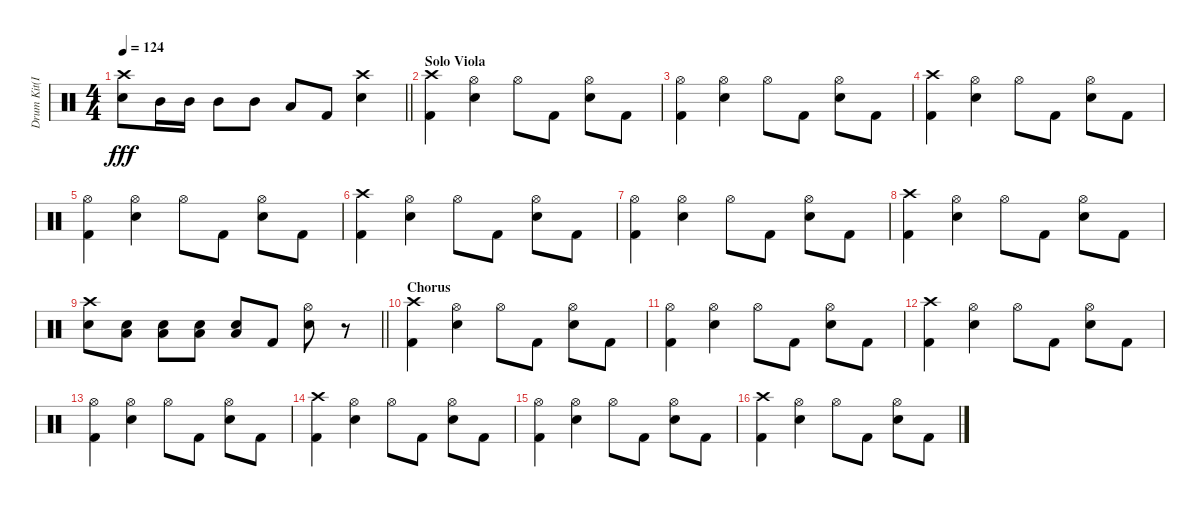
\track ("Drum Kit(Inu)" "Drum Kit(I") {instrument percussion}
\staff {score}
\articulation defaults
\ts (4 4)
\tempo 124
\clef neutral
\barLineRight lightlight
\ks c
("Electric Snare (hit)" "Crash high (hit)").8{dy fff} "Mid Tom (hit)".16 "Mid Tom (hit)".16 "Mid Tom (hit)".8 "Mid Tom (hit)".8 "Low Tom (hit)".8 "Kick (hit) 2".8 ("Crash high (hit)" "Electric Snare (hit)").4 |
\section ("" "Solo Viola")
("Kick (hit) 2" "Crash high (hit)").4 ("Hi-Hat (open)" "Electric Snare (hit)").4 "Hi-Hat (open)".8 "Kick (hit) 2".8 ("Hi-Hat (open)" "Electric Snare (hit)").8 "Kick (hit) 2".8 |
("Hi-Hat (open)" "Kick (hit) 2").4 ("Electric Snare (hit)" "Hi-Hat (open)").4 "Hi-Hat (open)".8 "Kick (hit) 2".8 ("Hi-Hat (open)" "Electric Snare (hit)").8 "Kick (hit) 2".8 |
("Kick (hit) 2" "Crash high (hit)").4 ("Hi-Hat (open)" "Electric Snare (hit)").4 "Hi-Hat (open)".8 "Kick (hit) 2".8 ("Hi-Hat (open)" "Electric Snare (hit)").8 "Kick (hit) 2".8 |
("Hi-Hat (open)" "Kick (hit) 2").4 ("Electric Snare (hit)" "Hi-Hat (open)").4 "Hi-Hat (open)".8 "Kick (hit) 2".8 ("Hi-Hat (open)" "Electric Snare (hit)").8 "Kick (hit) 2".8 |
("Kick (hit) 2" "Crash high (hit)").4 ("Hi-Hat (open)" "Electric Snare (hit)").4 "Hi-Hat (open)".8 "Kick (hit) 2".8 ("Hi-Hat (open)" "Electric Snare (hit)").8 "Kick (hit) 2".8 |
("Hi-Hat (open)" "Kick (hit) 2").4 ("Electric Snare (hit)" "Hi-Hat (open)").4 "Hi-Hat (open)".8 "Kick (hit) 2".8 ("Hi-Hat (open)" "Electric Snare (hit)").8 "Kick (hit) 2".8 |
("Kick (hit) 2" "Crash high (hit)").4 ("Hi-Hat (open)" "Electric Snare (hit)").4 "Hi-Hat (open)".8 "Kick (hit) 2".8 ("Hi-Hat (open)" "Electric Snare (hit)").8 "Kick (hit) 2".8 |
\barLineRight lightlight
("Crash high (hit)" "Electric Snare (hit)").8 ("Electric Snare (hit)" "Low Tom (hit)").8 ("Electric Snare (hit)" "Low Tom (hit)").8 ("Electric Snare (hit)" "Low Tom (hit)").8 ("Low Tom (hit)" "Electric Snare (hit)").8 "Kick (hit) 2".8 ("Electric Snare (hit)" "Hi-Hat (open)").8 r.8 |
\section ("" "Chorus")
("Kick (hit) 2" "Crash high (hit)").4 ("Hi-Hat (open)" "Electric Snare (hit)").4 "Hi-Hat (open)".8 "Kick (hit) 2".8 ("Hi-Hat (open)" "Electric Snare (hit)").8 "Kick (hit) 2".8 |
("Hi-Hat (open)" "Kick (hit) 2").4 ("Electric Snare (hit)" "Hi-Hat (open)").4 "Hi-Hat (open)".8 "Kick (hit) 2".8 ("Hi-Hat (open)" "Electric Snare (hit)").8 "Kick (hit) 2".8 |
("Kick (hit) 2" "Crash high (hit)").4 ("Hi-Hat (open)" "Electric Snare (hit)").4 "Hi-Hat (open)".8 "Kick (hit) 2".8 ("Hi-Hat (open)" "Electric Snare (hit)").8 "Kick (hit) 2".8 |
("Hi-Hat (open)" "Kick (hit) 2").4 ("Electric Snare (hit)" "Hi-Hat (open)").4 "Hi-Hat (open)".8 "Kick (hit) 2".8 ("Hi-Hat (open)" "Electric Snare (hit)").8 "Kick (hit) 2".8 |
("Kick (hit) 2" "Crash high (hit)").4 ("Hi-Hat (open)" "Electric Snare (hit)").4 "Hi-Hat (open)".8 "Kick (hit) 2".8 ("Hi-Hat (open)" "Electric Snare (hit)").8 "Kick (hit) 2".8 |
("Hi-Hat (open)" "Kick (hit) 2").4 ("Electric Snare (hit)" "Hi-Hat (open)").4 "Hi-Hat (open)".8 "Kick (hit) 2".8 ("Hi-Hat (open)" "Electric Snare (hit)").8 "Kick (hit) 2".8 |
("Kick (hit) 2" "Crash high (hit)").4 ("Hi-Hat (open)" "Electric Snare (hit)").4 "Hi-Hat (open)".8 "Kick (hit) 2".8 ("Hi-Hat (open)" "Electric Snare (hit)").8 "Kick (hit) 2".8
